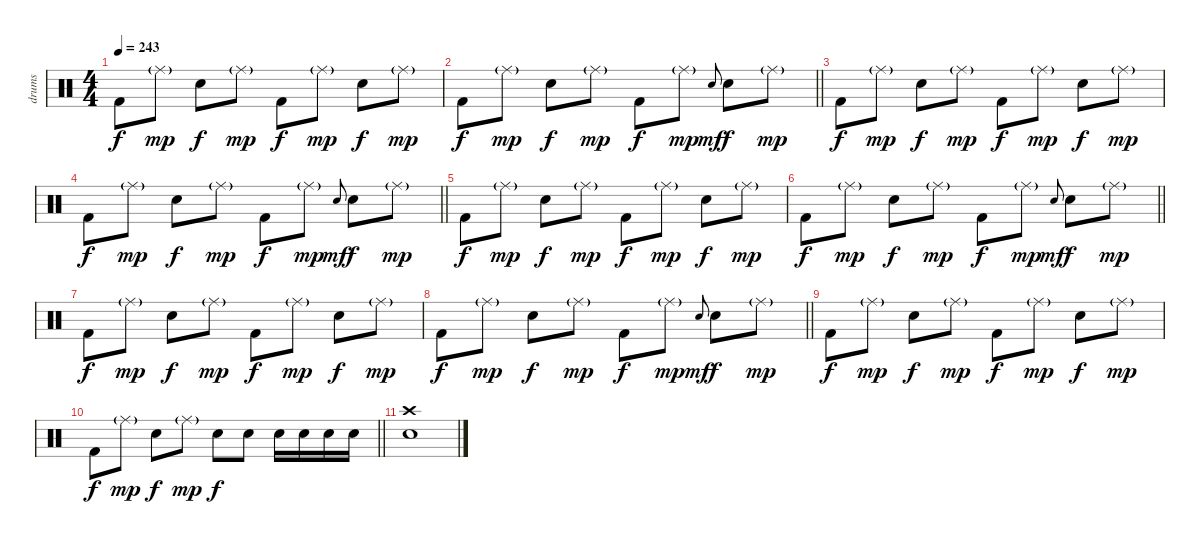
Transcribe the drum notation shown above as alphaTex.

\track ("drums" "drums") {instrument percussion}
\staff {score}
\articulation defaults
\ts (4 4)
\tempo 243
\clef neutral
\ks c "Kick (hit) 2".8{dy f} "Ride (middle)"{g}.8{dy mp} "Electric Snare (hit)".8{dy f} "Ride (middle)"{g}.8{dy mp} "Kick (hit) 2".8{dy f} "Ride (middle)"{g}.8{dy mp} "Electric Snare (hit)".8{dy f} "Ride (middle)"{g}.8{dy mp}
|
\barLineRight lightlight "Kick (hit) 2".8{dy f} "Ride (middle)"{g}.8{dy mp} "Electric Snare (hit)".8{dy f} "Ride (middle)"{g}.8{dy mp} "Kick (hit) 2".8{dy f} "Ride (middle)"{g}.8{dy mp} "Electric Snare (hit)"{x}.8{gr onbeat dy mf} "Electric Snare (hit)".8{dy f} "Ride (middle)"{g}.8{dy mp}
|
"Kick (hit) 2".8{dy f} "Ride (middle)"{g}.8{dy mp} "Electric Snare (hit)".8{dy f} "Ride (middle)"{g}.8{dy mp} "Kick (hit) 2".8{dy f} "Ride (middle)"{g}.8{dy mp} "Electric Snare (hit)".8{dy f} "Ride (middle)"{g}.8{dy mp} |
\barLineRight lightlight "Kick (hit) 2".8{dy f} "Ride (middle)"{g}.8{dy mp} "Electric Snare (hit)".8{dy f} "Ride (middle)"{g}.8{dy mp} "Kick (hit) 2".8{dy f} "Ride (middle)"{g}.8{dy mp} "Electric Snare (hit)"{x}.8{gr onbeat dy mf} "Electric Snare (hit)".8{dy f} "Ride (middle)"{g}.8{dy mp}
|
"Kick (hit) 2".8{dy f} "Ride (middle)"{g}.8{dy mp} "Electric Snare (hit)".8{dy f} "Ride (middle)"{g}.8{dy mp} "Kick (hit) 2".8{dy f} "Ride (middle)"{g}.8{dy mp} "Electric Snare (hit)".8{dy f} "Ride (middle)"{g}.8{dy mp} |
\barLineRight lightlight "Kick (hit) 2".8{dy f} "Ride (middle)"{g}.8{dy mp} "Electric Snare (hit)".8{dy f} "Ride (middle)"{g}.8{dy mp} "Kick (hit) 2".8{dy f} "Ride (middle)"{g}.8{dy mp} "Electric Snare (hit)"{x}.8{gr onbeat dy mf} "Electric Snare (hit)".8{dy f} "Ride (middle)"{g}.8{dy mp}
|
"Kick (hit) 2".8{dy f} "Ride (middle)"{g}.8{dy mp} "Electric Snare (hit)".8{dy f} "Ride (middle)"{g}.8{dy mp} "Kick (hit) 2".8{dy f} "Ride (middle)"{g}.8{dy mp} "Electric Snare (hit)".8{dy f} "Ride (middle)"{g}.8{dy mp} |
\barLineRight lightlight "Kick (hit) 2".8{dy f} "Ride (middle)"{g}.8{dy mp} "Electric Snare (hit)".8{dy f} "Ride (middle)"{g}.8{dy mp} "Kick (hit) 2".8{dy f} "Ride (middle)"{g}.8{dy mp} "Electric Snare (hit)"{x}.8{gr onbeat dy mf} "Electric Snare (hit)".8{dy f} "Ride (middle)"{g}.8{dy mp}
|
"Kick (hit) 2".8{dy f} "Ride (middle)"{g}.8{dy mp} "Electric Snare (hit)".8{dy f} "Ride (middle)"{g}.8{dy mp} "Kick (hit) 2".8{dy f} "Ride (middle)"{g}.8{dy mp} "Electric Snare (hit)".8{dy f} "Ride (middle)"{g}.8{dy mp} |
\barLineRight lightlight "Kick (hit) 2".8{dy f} "Ride (middle)"{g}.8{dy mp} "Electric Snare (hit)".8{dy f} "Ride (middle)"{g}.8{dy mp} "Electric Snare (hit)".8{dy f} "Electric Snare (hit)".8 "Electric Snare (hit)".16 "Electric Snare (hit)".16 "Electric Snare (hit)".16 "Electric Snare (hit)".16
|
("Electric Snare (hit)" "Crash high (hit)").1
